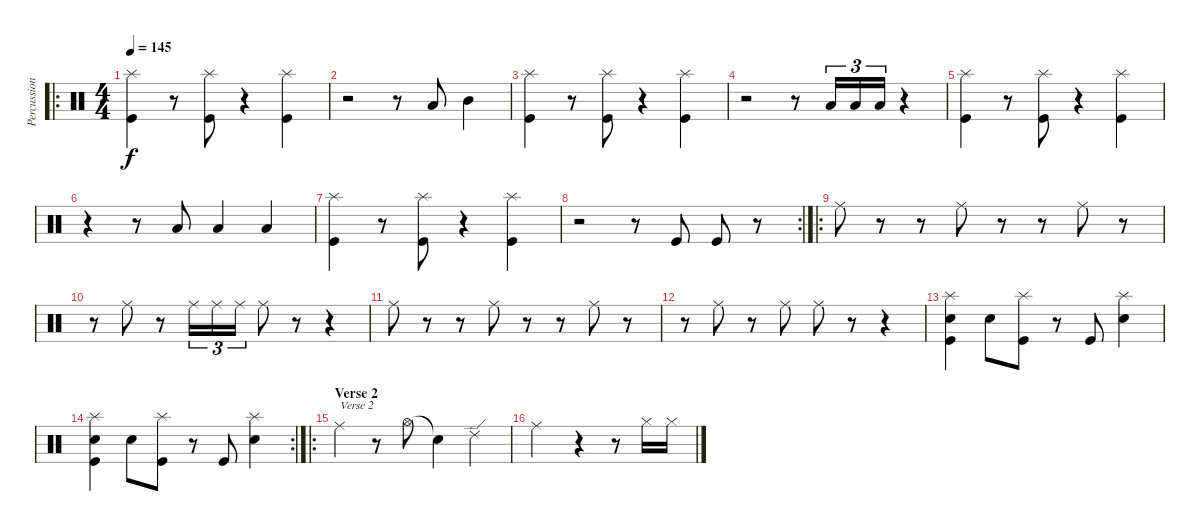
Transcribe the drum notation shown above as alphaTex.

\track ("Percussion" "Percussion") {instrument percussion}
\staff {score}
\articulation defaults
\ro
\ts (4 4)
\tempo 145
\clef neutral
\ks c
("Splash (hit)" "Kick (hit)").4{dy f} r.8 ("Splash (hit)" "Kick (hit)").8 r.4 ("Splash (hit)" "Kick (hit)").4 |
r.2 r.8 "Low Tom (hit)".8 "Mid Tom (hit)".4 |
("Splash (hit)" "Kick (hit)").4 r.8 ("Splash (hit)" "Kick (hit)").8 r.4 ("Splash (hit)" "Kick (hit)").4 |
r.2 r.8 "Low Tom (hit)".16{tu (3 2)} "Low Tom (hit)".16{tu (3 2)} "Low Tom (hit)".16{tu (3 2)} r.4 |
("Splash (hit)" "Kick (hit)").4 r.8 ("Splash (hit)" "Kick (hit)").8 r.4 ("Splash (hit)" "Kick (hit)").4 |
r.4 r.8 "Low Tom (hit)".8 "Low Tom (hit)".4 "Low Tom (hit)".4 |
("Splash (hit)" "Kick (hit)").4 r.8 ("Splash (hit)" "Kick (hit)").8 r.4 ("Splash (hit)" "Kick (hit)").4 |
\rc 2
r.2 r.8 "Kick (hit)".8 "Kick (hit)".8 r.8 |
\ro "Ride (middle)".8
r.8 r.8 "Ride (middle)".8 r.8 r.8 "Ride (middle)".8 r.8 |
r.8 "Ride (middle)".8 r.8 "Ride (middle)".16{tu (3 2)} "Ride (middle)".16{tu (3 2)} "Ride (middle)".16{tu (3 2)} "Ride (middle)".8 r.8 r.4 |
"Ride (middle)".8 r.8 r.8 "Ride (middle)".8 r.8 r.8 "Ride (middle)".8 r.8 |
r.8 "Ride (middle)".8 r.8 "Ride (middle)".8 "Ride (middle)".8 r.8 r.4 |
("Splash (hit)" "Snare (hit) 2" "Kick (hit)").4 "Snare (hit) 2".8 ("Splash (hit)" "Kick (hit)").8 r.8 "Kick (hit)".8 ("Splash (hit)" "Snare (hit) 2").4 |
\rc 2
("Splash (hit)" "Snare (hit) 2" "Kick (hit)").4 "Snare (hit) 2".8 ("Splash (hit)" "Kick (hit)").8 r.8 "Kick (hit)".8 ("Splash (hit)" "Snare (hit) 2").4 |
\ro
\section ("" "Verse 2")
"Ride (middle)".4{txt "Verse 2"} r.8 "Hi-Hat (open)".8 "Snare (hit)"{t}.4 "Ride (edge) 2".4 |
"Ride (middle)".2 r.4 r.8 "Hi-Hat (closed)".16 "Hi-Hat (closed)".16
